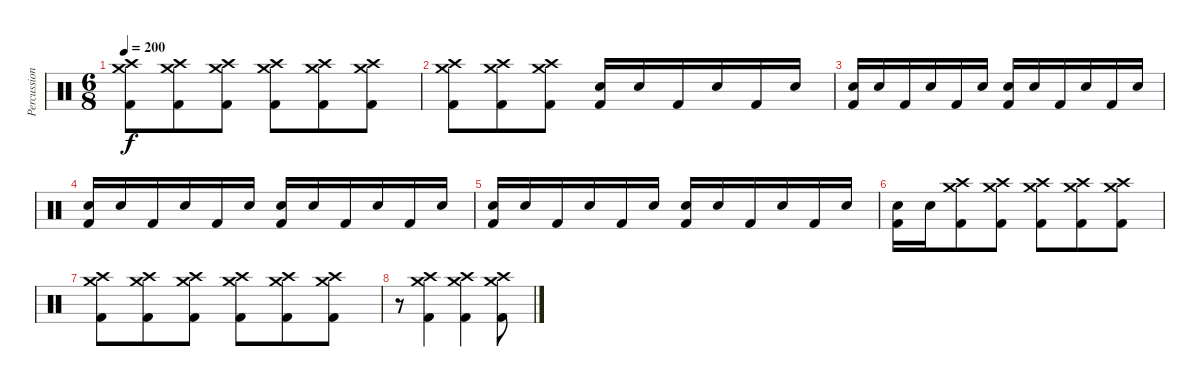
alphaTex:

\track ("Percussion" "Percussion") {instrument percussion}
\staff {score}
\articulation defaults
\ts (6 8)
\tempo 200
\clef neutral
\ks c
("Kick (hit) 2" "Crash high (hit)" "Crash medium (hit)").8{dy f} ("Kick (hit) 2" "Crash high (hit)" "Crash medium (hit)").8 ("Kick (hit) 2" "Crash high (hit)" "Crash medium (hit)").8 ("Kick (hit) 2" "Crash high (hit)" "Crash medium (hit)").8 ("Kick (hit) 2" "Crash high (hit)" "Crash medium (hit)").8 ("Kick (hit) 2" "Crash high (hit)" "Crash medium (hit)").8 |
("Kick (hit) 2" "Crash high (hit)" "Crash medium (hit)").8 ("Kick (hit) 2" "Crash high (hit)" "Crash medium (hit)").8 ("Kick (hit) 2" "Crash high (hit)" "Crash medium (hit)").8 ("Kick (hit) 2" "Snare (hit) 2").16 "Snare (hit) 2".16 "Kick (hit) 2".16 "Snare (hit) 2".16 "Kick (hit) 2".16 "Snare (hit) 2".16 |
("Snare (hit) 2" "Kick (hit) 2").16 "Snare (hit) 2".16 "Kick (hit) 2".16 "Snare (hit) 2".16 "Kick (hit) 2".16 "Snare (hit) 2".16 ("Snare (hit) 2" "Kick (hit) 2").16 "Snare (hit) 2".16 "Kick (hit) 2".16 "Snare (hit) 2".16 "Kick (hit) 2".16 "Snare (hit) 2".16 |
("Snare (hit) 2" "Kick (hit) 2").16 "Snare (hit) 2".16 "Kick (hit) 2".16 "Snare (hit) 2".16 "Kick (hit) 2".16 "Snare (hit) 2".16 ("Snare (hit) 2" "Kick (hit) 2").16 "Snare (hit) 2".16 "Kick (hit) 2".16 "Snare (hit) 2".16 "Kick (hit) 2".16 "Snare (hit) 2".16 |
("Snare (hit) 2" "Kick (hit) 2").16 "Snare (hit) 2".16 "Kick (hit) 2".16 "Snare (hit) 2".16 "Kick (hit) 2".16 "Snare (hit) 2".16 ("Snare (hit) 2" "Kick (hit) 2").16 "Snare (hit) 2".16 "Kick (hit) 2".16 "Snare (hit) 2".16 "Kick (hit) 2".16 "Snare (hit) 2".16 |
("Snare (hit) 2" "Kick (hit) 2").16 "Snare (hit) 2".16 ("Kick (hit) 2" "Crash high (hit)" "Crash medium (hit)").8 ("Kick (hit) 2" "Crash high (hit)" "Crash medium (hit)").8 ("Kick (hit) 2" "Crash high (hit)" "Crash medium (hit)").8 ("Kick (hit) 2" "Crash high (hit)" "Crash medium (hit)").8 ("Kick (hit) 2" "Crash high (hit)" "Crash medium (hit)").8 |
("Kick (hit) 2" "Crash high (hit)" "Crash medium (hit)").8 ("Kick (hit) 2" "Crash high (hit)" "Crash medium (hit)").8 ("Kick (hit) 2" "Crash high (hit)" "Crash medium (hit)").8 ("Kick (hit) 2" "Crash high (hit)" "Crash medium (hit)").8 ("Kick (hit) 2" "Crash high (hit)" "Crash medium (hit)").8 ("Kick (hit) 2" "Crash high (hit)" "Crash medium (hit)").8 |
r.8 ("Kick (hit) 2" "Crash high (hit)" "Crash medium (hit)").4 ("Kick (hit) 2" "Crash high (hit)" "Crash medium (hit)").4 ("Kick (hit) 2" "Crash high (hit)" "Crash medium (hit)").8
